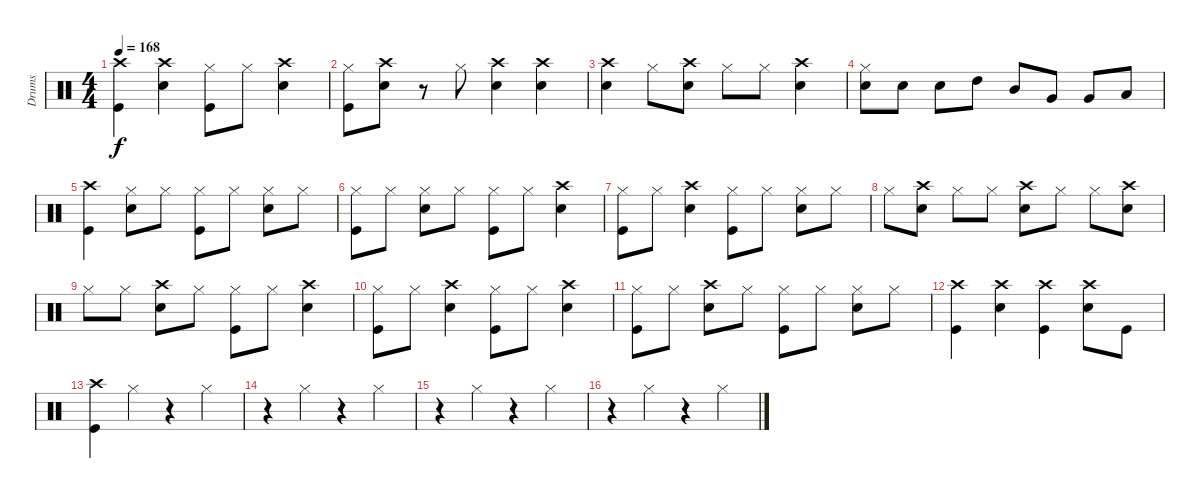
\track ("Drums" "Drums") {instrument percussion}
\staff {score}
\articulation defaults
\ts (4 4)
\tempo 168
\clef neutral
\ks c
("Crash high (hit)" "Kick (hit)").4{dy f} ("Crash high (hit)" "Electric Snare (hit)").4 ("Hi-Hat (closed)" "Kick (hit)").8 "Hi-Hat (closed)".8 ("Crash high (hit)" "Electric Snare (hit)").4 |
("Hi-Hat (closed)" "Kick (hit)").8 ("Crash high (hit)" "Electric Snare (hit)").8 r.8 "Hi-Hat (closed)".8 ("Crash high (hit)" "Electric Snare (hit)").4 ("Crash high (hit)" "Electric Snare (hit)").4 |
("Crash high (hit)" "Electric Snare (hit)").4 "Hi-Hat (closed)".8 ("Crash high (hit)" "Electric Snare (hit)").8 "Hi-Hat (closed)".8 "Hi-Hat (closed)".8 ("Crash high (hit)" "Electric Snare (hit)").4 |
("Hi-Hat (closed)" "Electric Snare (hit)").8 "Electric Snare (hit)".8 "Electric Snare (hit)".8 "High Tom (hit)".8 "Mid Tom (hit)".8 "Very Low Tom (hit)".8 "Very Low Tom (hit)".8 "Low Floor Tom (hit)".8 |
("Crash high (hit)" "Kick (hit)").4 ("Hi-Hat (closed)" "Electric Snare (hit)").8 "Hi-Hat (closed)".8 ("Hi-Hat (closed)" "Kick (hit)").8 "Hi-Hat (closed)".8 ("Hi-Hat (closed)" "Electric Snare (hit)").8 "Hi-Hat (closed)".8 |
("Hi-Hat (closed)" "Kick (hit)").8 "Hi-Hat (closed)".8 ("Hi-Hat (closed)" "Electric Snare (hit)").8 "Hi-Hat (closed)".8 ("Hi-Hat (closed)" "Kick (hit)").8 "Hi-Hat (closed)".8 ("Crash high (hit)" "Electric Snare (hit)").4 |
("Hi-Hat (closed)" "Kick (hit)").8 "Hi-Hat (closed)".8 ("Crash high (hit)" "Electric Snare (hit)").4 ("Hi-Hat (closed)" "Kick (hit)").8 "Hi-Hat (closed)".8 ("Hi-Hat (closed)" "Electric Snare (hit)").8 "Hi-Hat (closed)".8 |
"Hi-Hat (closed)".8 ("Crash high (hit)" "Electric Snare (hit)").8 "Hi-Hat (closed)".8 "Hi-Hat (closed)".8 ("Crash high (hit)" "Electric Snare (hit)").8 "Hi-Hat (closed)".8 "Hi-Hat (closed)".8 ("Crash high (hit)" "Electric Snare (hit)").8 |
"Hi-Hat (closed)".8 "Hi-Hat (closed)".8 ("Crash high (hit)" "Electric Snare (hit)").8 "Hi-Hat (closed)".8 ("Hi-Hat (closed)" "Kick (hit)").8 "Hi-Hat (closed)".8 ("Crash high (hit)" "Electric Snare (hit)").4 |
("Hi-Hat (closed)" "Kick (hit)").8 "Hi-Hat (closed)".8 ("Crash high (hit)" "Electric Snare (hit)").4 ("Hi-Hat (closed)" "Kick (hit)").8 "Hi-Hat (closed)".8 ("Crash high (hit)" "Electric Snare (hit)").4 |
("Hi-Hat (closed)" "Kick (hit)").8 "Hi-Hat (closed)".8 ("Crash high (hit)" "Electric Snare (hit)").8 "Hi-Hat (closed)".8 ("Hi-Hat (closed)" "Kick (hit)").8 "Hi-Hat (closed)".8 ("Hi-Hat (closed)" "Electric Snare (hit)").8 "Hi-Hat (closed)".8 |
("Crash high (hit)" "Kick (hit)").4 ("Crash high (hit)" "Electric Snare (hit)").4 ("Crash high (hit)" "Kick (hit)").4 ("Crash high (hit)" "Electric Snare (hit)").8 "Kick (hit)".8 |
("Crash high (hit)" "Kick (hit)").4 "Hi-Hat (closed)".4 r.4 "Hi-Hat (closed)".4 |
r.4 "Hi-Hat (closed)".4 r.4 "Hi-Hat (closed)".4 |
r.4 "Hi-Hat (closed)".4 r.4 "Hi-Hat (closed)".4 |
r.4 "Hi-Hat (closed)".4 r.4 "Hi-Hat (closed)".4
